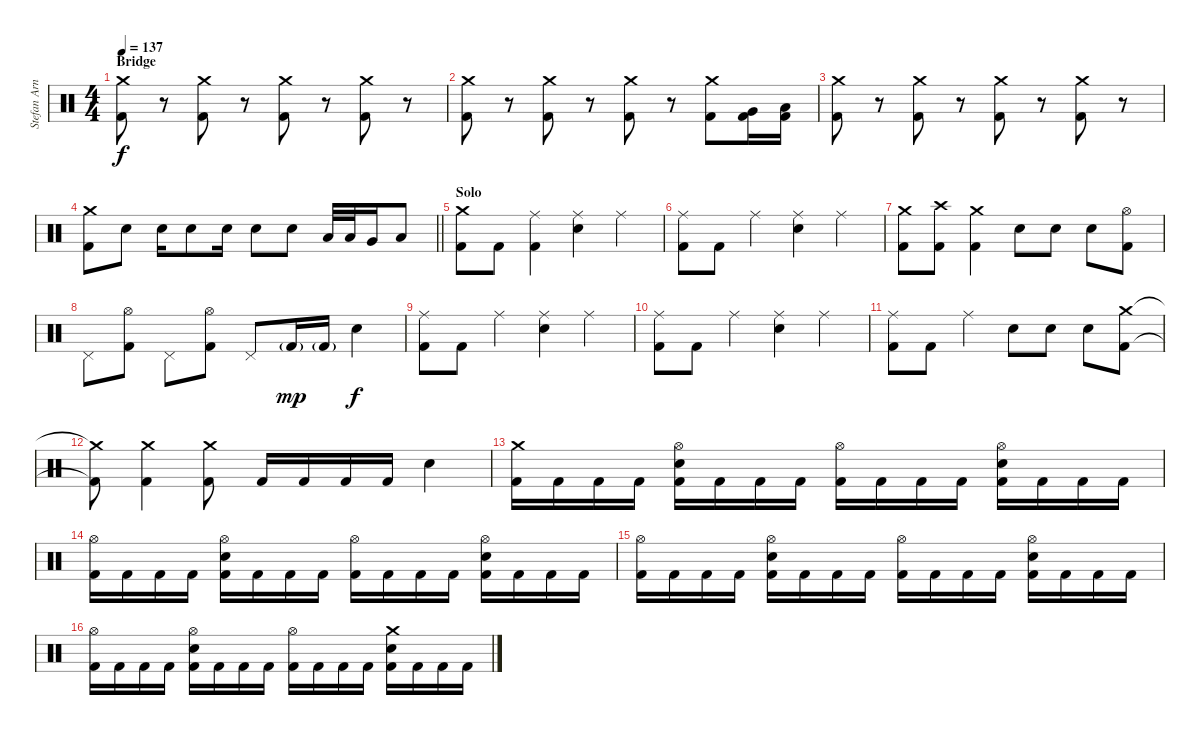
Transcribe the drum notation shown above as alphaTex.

\track ("Stefan Arnold" "Stefan Arn") {instrument percussion}
\staff {score}
\articulation defaults
\ts (4 4)
\section ("" "Bridge")
\tempo 137
\clef neutral
\ks c
("Crash medium (hit)" "Kick (hit) 2").8{dy f} r.8 ("Crash medium (hit)" "Kick (hit) 2").8 r.8 ("Crash medium (hit)" "Kick (hit) 2").8 r.8 ("Crash medium (hit)" "Kick (hit) 2").8 r.8 |
("Crash medium (hit)" "Kick (hit) 2").8 r.8 ("Crash medium (hit)" "Kick (hit) 2").8 r.8 ("Crash medium (hit)" "Kick (hit) 2").8 r.8 ("Crash medium (hit)" "Kick (hit) 2").8 ("Very Low Tom (hit)" "Kick (hit) 2").16 ("Low Floor Tom (hit)" "Kick (hit) 2").16 |
("Crash medium (hit)" "Kick (hit) 2").8 r.8 ("Crash medium (hit)" "Kick (hit) 2").8 r.8 ("Crash medium (hit)" "Kick (hit) 2").8 r.8 ("Crash medium (hit)" "Kick (hit) 2").8 r.8 |
\barLineRight lightlight
("Crash medium (hit)" "Kick (hit) 2").8 "Electric Snare (hit)".8 "Electric Snare (hit)".16 "Electric Snare (hit)".8 "Electric Snare (hit)".16 "Electric Snare (hit)".8 "Electric Snare (hit)".8 "Low Tom (hit)".32 "Low Tom (hit)".32 "Very Low Tom (hit)".16 "Low Floor Tom (hit)".8 |
\section ("" "Solo")
("Crash medium (hit)" "Kick (hit) 2").8 "Kick (hit) 2".8 ("Ride (middle)" "Kick (hit) 2").4 ("Ride (middle)" "Electric Snare (hit)").4 "Ride (middle)".4 |
("Ride (middle)" "Kick (hit) 2").8 "Kick (hit) 2".8 "Ride (middle)".4 ("Ride (middle)" "Electric Snare (hit)").4 "Ride (middle)".4 |
("Crash medium (hit)" "Kick (hit) 2").8 ("Crash high (hit)" "Kick (hit) 2").8 ("Crash medium (hit)" "Kick (hit) 2").4 "Electric Snare (hit)".8 "Electric Snare (hit)".8 "Electric Snare (hit)".8 ("Hi-Hat (open)" "Kick (hit) 2").8 |
"Pedal Hi-Hat (hit)".8 ("Hi-Hat (open)" "Kick (hit) 2").8 "Pedal Hi-Hat (hit)".8 ("Hi-Hat (open)" "Kick (hit) 2").8 "Pedal Hi-Hat (hit)".8 "Kick (hit) 2"{g}.16{dy mp} "Kick (hit) 2"{g}.16 "Electric Snare (hit)".4{dy f} |
("Ride (middle)" "Kick (hit) 2").8 "Kick (hit) 2".8 "Ride (middle)".4 ("Ride (middle)" "Electric Snare (hit)").4 "Ride (middle)".4 |
("Ride (middle)" "Kick (hit) 2").8 "Kick (hit) 2".8 "Ride (middle)".4 ("Ride (middle)" "Electric Snare (hit)").4 "Ride (middle)".4 |
("Ride (middle)" "Kick (hit) 2").8 "Kick (hit) 2".8 "Ride (middle)".4 "Electric Snare (hit)".8 "Electric Snare (hit)".8 "Electric Snare (hit)".8 ("Crash medium (hit)" "Kick (hit) 2").8 |
("Crash medium (hit)"{t} "Kick (hit) 2"{t}).8 ("Crash medium (hit)" "Kick (hit) 2").4 ("Crash medium (hit)" "Kick (hit) 2").8 "Kick (hit) 2".16 "Kick (hit) 2".16 "Kick (hit) 2".16 "Kick (hit) 2".16 "Electric Snare (hit)".4 |
("Crash medium (hit)" "Kick (hit) 2").16 "Kick (hit) 2".16 "Kick (hit) 2".16 "Kick (hit) 2".16 ("Hi-Hat (open)" "Electric Snare (hit)" "Kick (hit) 2").16 "Kick (hit) 2".16 "Kick (hit) 2".16 "Kick (hit) 2".16 ("Hi-Hat (open)" "Kick (hit) 2").16 "Kick (hit) 2".16 "Kick (hit) 2".16 "Kick (hit) 2".16 ("Hi-Hat (open)" "Electric Snare (hit)" "Kick (hit) 2").16 "Kick (hit) 2".16 "Kick (hit) 2".16 "Kick (hit) 2".16 |
("Hi-Hat (open)" "Kick (hit) 2").16 "Kick (hit) 2".16 "Kick (hit) 2".16 "Kick (hit) 2".16 ("Hi-Hat (open)" "Electric Snare (hit)" "Kick (hit) 2").16 "Kick (hit) 2".16 "Kick (hit) 2".16 "Kick (hit) 2".16 ("Hi-Hat (open)" "Kick (hit) 2").16 "Kick (hit) 2".16 "Kick (hit) 2".16 "Kick (hit) 2".16 ("Hi-Hat (open)" "Electric Snare (hit)" "Kick (hit) 2").16 "Kick (hit) 2".16 "Kick (hit) 2".16 "Kick (hit) 2".16 |
("Hi-Hat (open)" "Kick (hit) 2").16 "Kick (hit) 2".16 "Kick (hit) 2".16 "Kick (hit) 2".16 ("Hi-Hat (open)" "Electric Snare (hit)" "Kick (hit) 2").16 "Kick (hit) 2".16 "Kick (hit) 2".16 "Kick (hit) 2".16 ("Hi-Hat (open)" "Kick (hit) 2").16 "Kick (hit) 2".16 "Kick (hit) 2".16 "Kick (hit) 2".16 ("Hi-Hat (open)" "Electric Snare (hit)" "Kick (hit) 2").16 "Kick (hit) 2".16 "Kick (hit) 2".16 "Kick (hit) 2".16 |
("Hi-Hat (open)" "Kick (hit) 2").16 "Kick (hit) 2".16 "Kick (hit) 2".16 "Kick (hit) 2".16 ("Hi-Hat (open)" "Electric Snare (hit)" "Kick (hit) 2").16 "Kick (hit) 2".16 "Kick (hit) 2".16 "Kick (hit) 2".16 ("Hi-Hat (open)" "Kick (hit) 2").16 "Kick (hit) 2".16 "Kick (hit) 2".16 "Kick (hit) 2".16 ("Crash medium (hit)" "Electric Snare (hit)" "Kick (hit) 2").16 "Kick (hit) 2".16 "Kick (hit) 2".16 "Kick (hit) 2".16
